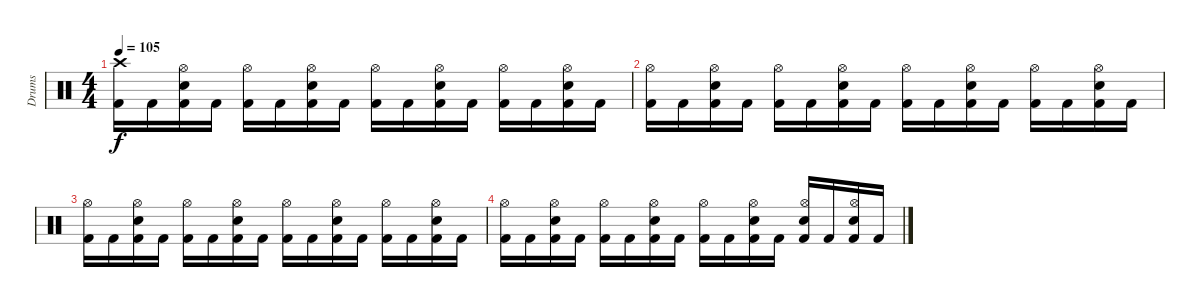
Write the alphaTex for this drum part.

\track ("Drums" "Drums") {instrument percussion}
\staff {score}
\articulation defaults
\ts (4 4)
\tempo 105
\clef neutral
\ks c
("Crash high (hit)" "Kick (hit) 2").16{dy f} "Kick (hit) 2".16 ("Hi-Hat (open)" "Electric Snare (hit)" "Kick (hit) 2").16 "Kick (hit) 2".16 ("Hi-Hat (open)" "Kick (hit) 2").16 "Kick (hit) 2".16 ("Hi-Hat (open)" "Electric Snare (hit)" "Kick (hit) 2").16 "Kick (hit) 2".16 ("Hi-Hat (open)" "Kick (hit) 2").16 "Kick (hit) 2".16 ("Hi-Hat (open)" "Electric Snare (hit)" "Kick (hit) 2").16 "Kick (hit) 2".16 ("Hi-Hat (open)" "Kick (hit) 2").16 "Kick (hit) 2".16 ("Hi-Hat (open)" "Electric Snare (hit)" "Kick (hit) 2").16 "Kick (hit) 2".16 |
("Hi-Hat (open)" "Kick (hit) 2").16 "Kick (hit) 2".16 ("Hi-Hat (open)" "Electric Snare (hit)" "Kick (hit) 2").16 "Kick (hit) 2".16 ("Hi-Hat (open)" "Kick (hit) 2").16 "Kick (hit) 2".16 ("Hi-Hat (open)" "Electric Snare (hit)" "Kick (hit) 2").16 "Kick (hit) 2".16 ("Hi-Hat (open)" "Kick (hit) 2").16 "Kick (hit) 2".16 ("Hi-Hat (open)" "Electric Snare (hit)" "Kick (hit) 2").16 "Kick (hit) 2".16 ("Hi-Hat (open)" "Kick (hit) 2").16 "Kick (hit) 2".16 ("Hi-Hat (open)" "Electric Snare (hit)" "Kick (hit) 2").16 "Kick (hit) 2".16 |
("Hi-Hat (open)" "Kick (hit) 2").16 "Kick (hit) 2".16 ("Hi-Hat (open)" "Electric Snare (hit)" "Kick (hit) 2").16 "Kick (hit) 2".16 ("Hi-Hat (open)" "Kick (hit) 2").16 "Kick (hit) 2".16 ("Hi-Hat (open)" "Electric Snare (hit)" "Kick (hit) 2").16 "Kick (hit) 2".16 ("Hi-Hat (open)" "Kick (hit) 2").16 "Kick (hit) 2".16 ("Hi-Hat (open)" "Electric Snare (hit)" "Kick (hit) 2").16 "Kick (hit) 2".16 ("Hi-Hat (open)" "Kick (hit) 2").16 "Kick (hit) 2".16 ("Hi-Hat (open)" "Electric Snare (hit)" "Kick (hit) 2").16 "Kick (hit) 2".16 |
("Hi-Hat (open)" "Kick (hit) 2").16 "Kick (hit) 2".16 ("Hi-Hat (open)" "Electric Snare (hit)" "Kick (hit) 2").16 "Kick (hit) 2".16 ("Hi-Hat (open)" "Kick (hit) 2").16 "Kick (hit) 2".16 ("Hi-Hat (open)" "Electric Snare (hit)" "Kick (hit) 2").16 "Kick (hit) 2".16 ("Hi-Hat (open)" "Kick (hit) 2").16 "Kick (hit) 2".16 ("Hi-Hat (open)" "Electric Snare (hit)" "Kick (hit) 2").16 "Kick (hit) 2".16 ("Hi-Hat (open)" "Electric Snare (hit)" "Kick (hit) 2").16 "Kick (hit) 2".16 ("Hi-Hat (open)" "Electric Snare (hit)" "Kick (hit) 2").16 "Kick (hit) 2".16
